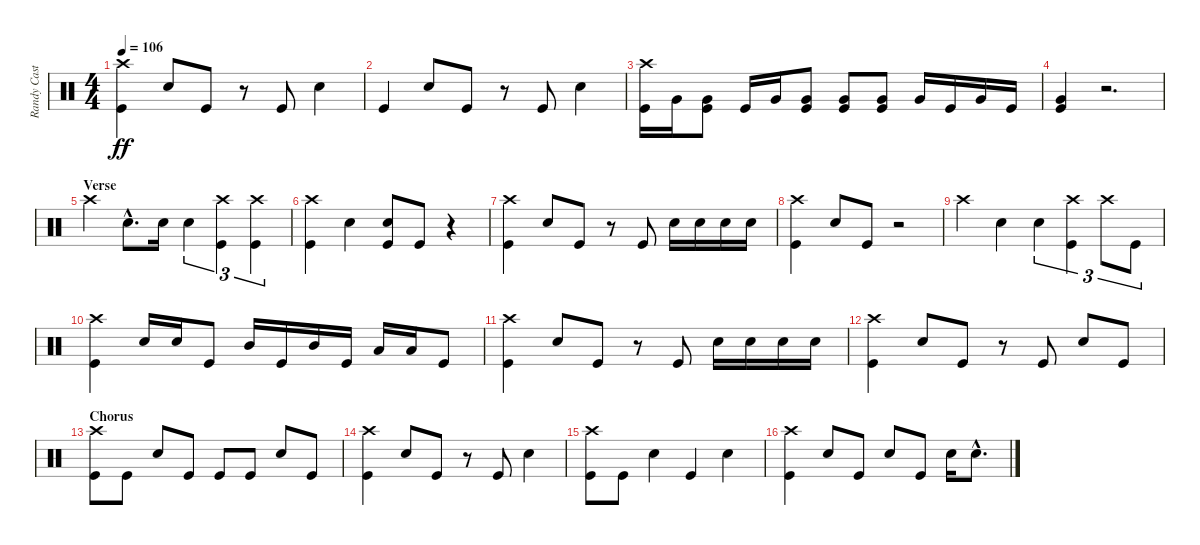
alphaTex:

\track ("Randy Castillo" "Randy Cast") {instrument percussion}
\staff {score}
\articulation defaults
\ts (4 4)
\tempo 106
\clef neutral
\ks c
("Crash high (hit)" "Kick (hit)").4{dy ff} "Snare (hit) 2".8 "Kick (hit)".8 r.8 "Kick (hit)".8 "Snare (hit) 2".4 |
"Kick (hit)".4 "Snare (hit) 2".8 "Kick (hit)".8 r.8 "Kick (hit)".8 "Snare (hit) 2".4 |
("Crash high (hit)" "Kick (hit)").16 "Very Low Tom (hit)".16 ("Very Low Tom (hit)" "Kick (hit)").8 "Kick (hit)".16 "Very Low Tom (hit)".16 ("Very Low Tom (hit)" "Kick (hit)").8 ("Very Low Tom (hit)" "Kick (hit)").8 ("Very Low Tom (hit)" "Kick (hit)").8 "Very Low Tom (hit)".16 "Kick (hit)".16 "Very Low Tom (hit)".16 "Kick (hit)".16 |
("Very Low Tom (hit)" "Kick (hit)").4 r.2{d} |
\section ("" "Verse")
"Crash high (hit)".4 "Snare (hit) 2"{hac}.8{d} "Snare (hit) 2".16 "Snare (hit) 2".4{tu (3 2)} ("Crash high (hit)" "Kick (hit)").4{tu (3 2)} ("Crash high (hit)" "Kick (hit)").4{tu (3 2)} |
("Crash high (hit)" "Kick (hit)").4 "Snare (hit) 2".4 ("Snare (hit) 2" "Kick (hit)").8 "Kick (hit)".8 r.4 |
("Crash high (hit)" "Kick (hit)").4 "Snare (hit) 2".8 "Kick (hit)".8 r.8 "Kick (hit)".8 "Snare (hit) 2".16 "Snare (hit) 2".16 "Snare (hit) 2".16 "Snare (hit) 2".16 |
("Crash high (hit)" "Kick (hit)").4 "Snare (hit) 2".8 "Kick (hit)".8 r.2 |
"Crash high (hit)".4 "Snare (hit) 2".4 "Snare (hit) 2".4{tu (3 2)} ("Crash high (hit)" "Kick (hit)").4{tu (3 2)} "Crash high (hit)".8{tu (3 2)} "Kick (hit)".8{tu (3 2)} |
("Crash high (hit)" "Kick (hit)").4 "Snare (hit) 2".16 "Snare (hit) 2".16 "Kick (hit)".8 "Mid Tom (hit)".16 "Kick (hit)".16 "Mid Tom (hit)".16 "Kick (hit)".16 "Low Tom (hit)".16 "Low Tom (hit)".16 "Kick (hit)".8 |
("Crash high (hit)" "Kick (hit)").4 "Snare (hit) 2".8 "Kick (hit)".8 r.8 "Kick (hit)".8 "Snare (hit) 2".16 "Snare (hit) 2".16 "Snare (hit) 2".16 "Snare (hit) 2".16 |
("Crash high (hit)" "Kick (hit)").4 "Snare (hit) 2".8 "Kick (hit)".8 r.8 "Kick (hit)".8 "Snare (hit) 2".8 "Kick (hit)".8 |
\section ("" "Chorus")
("Crash high (hit)" "Kick (hit)").8 "Kick (hit)".8 "Snare (hit) 2".8 "Kick (hit)".8 "Kick (hit)".8 "Kick (hit)".8 "Snare (hit) 2".8 "Kick (hit)".8 |
("Crash high (hit)" "Kick (hit)").4 "Snare (hit) 2".8 "Kick (hit)".8 r.8 "Kick (hit)".8 "Snare (hit) 2".4 |
("Crash high (hit)" "Kick (hit)").8 "Kick (hit)".8 "Snare (hit) 2".4 "Kick (hit)".4 "Snare (hit) 2".4 |
("Crash high (hit)" "Kick (hit)").4 "Snare (hit) 2".8 "Kick (hit)".8 "Snare (hit) 2".8 "Kick (hit)".8 "Snare (hit) 2".16 "Snare (hit) 2"{hac}.8{d}
